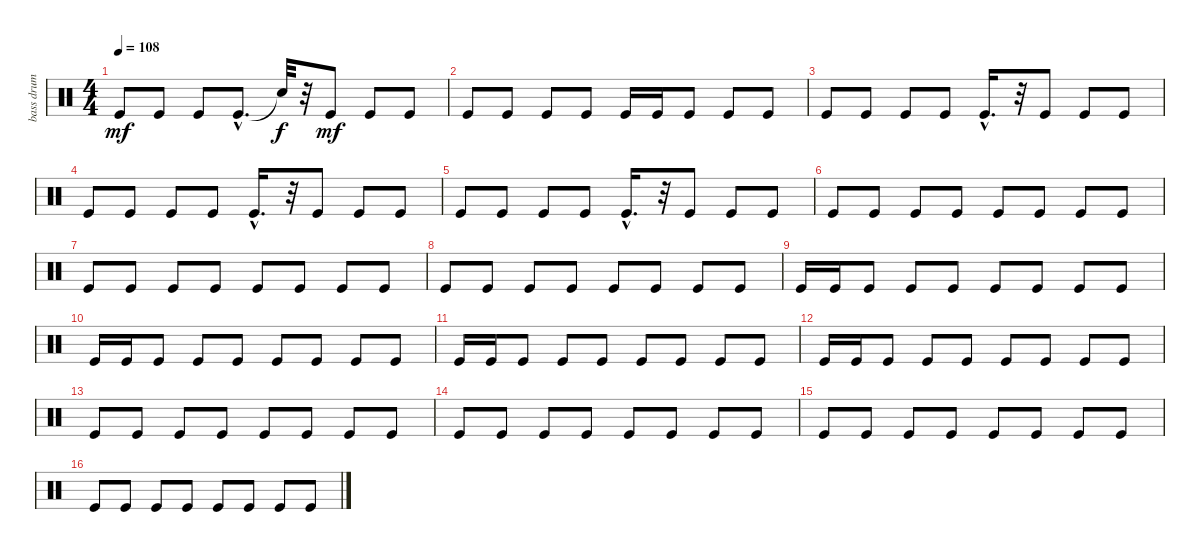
\track ("bass drum           " "bass drum ") {instrument percussion}
\staff {score}
\articulation defaults
\ts (4 4)
\tempo 108
\clef neutral
\ks c "Kick (hit)".8{dy mf} "Kick (hit)".8 "Kick (hit)".8 "Kick (hit)"{hac}.8{d} "Snare (hit)"{t}.32{dy f}
r.32 "Kick (hit)".8{dy mf} "Kick (hit)".8 "Kick (hit)".8 |
"Kick (hit)".8 "Kick (hit)".8 "Kick (hit)".8 "Kick (hit)".8 "Kick (hit)".16 "Kick (hit)".16 "Kick (hit)".8 "Kick (hit)".8 "Kick (hit)".8 |
"Kick (hit)".8 "Kick (hit)".8 "Kick (hit)".8 "Kick (hit)".8 "Kick (hit)"{hac}.16{d} r.32 "Kick (hit)".8 "Kick (hit)".8 "Kick (hit)".8 |
"Kick (hit)".8 "Kick (hit)".8 "Kick (hit)".8 "Kick (hit)".8 "Kick (hit)"{hac}.16{d} r.32 "Kick (hit)".8 "Kick (hit)".8 "Kick (hit)".8 |
"Kick (hit)".8 "Kick (hit)".8 "Kick (hit)".8 "Kick (hit)".8 "Kick (hit)"{hac}.16{d} r.32 "Kick (hit)".8 "Kick (hit)".8 "Kick (hit)".8 |
"Kick (hit)".8 "Kick (hit)".8 "Kick (hit)".8 "Kick (hit)".8 "Kick (hit)".8 "Kick (hit)".8 "Kick (hit)".8 "Kick (hit)".8 |
"Kick (hit)".8 "Kick (hit)".8 "Kick (hit)".8 "Kick (hit)".8 "Kick (hit)".8 "Kick (hit)".8 "Kick (hit)".8 "Kick (hit)".8 |
"Kick (hit)".8 "Kick (hit)".8 "Kick (hit)".8 "Kick (hit)".8 "Kick (hit)".8 "Kick (hit)".8 "Kick (hit)".8 "Kick (hit)".8 |
"Kick (hit)".16 "Kick (hit)".16 "Kick (hit)".8 "Kick (hit)".8 "Kick (hit)".8 "Kick (hit)".8 "Kick (hit)".8 "Kick (hit)".8 "Kick (hit)".8 |
"Kick (hit)".16 "Kick (hit)".16 "Kick (hit)".8 "Kick (hit)".8 "Kick (hit)".8 "Kick (hit)".8 "Kick (hit)".8 "Kick (hit)".8 "Kick (hit)".8 |
"Kick (hit)".16 "Kick (hit)".16 "Kick (hit)".8 "Kick (hit)".8 "Kick (hit)".8 "Kick (hit)".8 "Kick (hit)".8 "Kick (hit)".8 "Kick (hit)".8 |
"Kick (hit)".16 "Kick (hit)".16 "Kick (hit)".8 "Kick (hit)".8 "Kick (hit)".8 "Kick (hit)".8 "Kick (hit)".8 "Kick (hit)".8 "Kick (hit)".8 |
"Kick (hit)".8 "Kick (hit)".8 "Kick (hit)".8 "Kick (hit)".8 "Kick (hit)".8 "Kick (hit)".8 "Kick (hit)".8 "Kick (hit)".8 |
"Kick (hit)".8 "Kick (hit)".8 "Kick (hit)".8 "Kick (hit)".8 "Kick (hit)".8 "Kick (hit)".8 "Kick (hit)".8 "Kick (hit)".8 |
"Kick (hit)".8 "Kick (hit)".8 "Kick (hit)".8 "Kick (hit)".8 "Kick (hit)".8 "Kick (hit)".8 "Kick (hit)".8 "Kick (hit)".8 |
"Kick (hit)".8 "Kick (hit)".8 "Kick (hit)".8 "Kick (hit)".8 "Kick (hit)".8 "Kick (hit)".8 "Kick (hit)".8 "Kick (hit)".8
